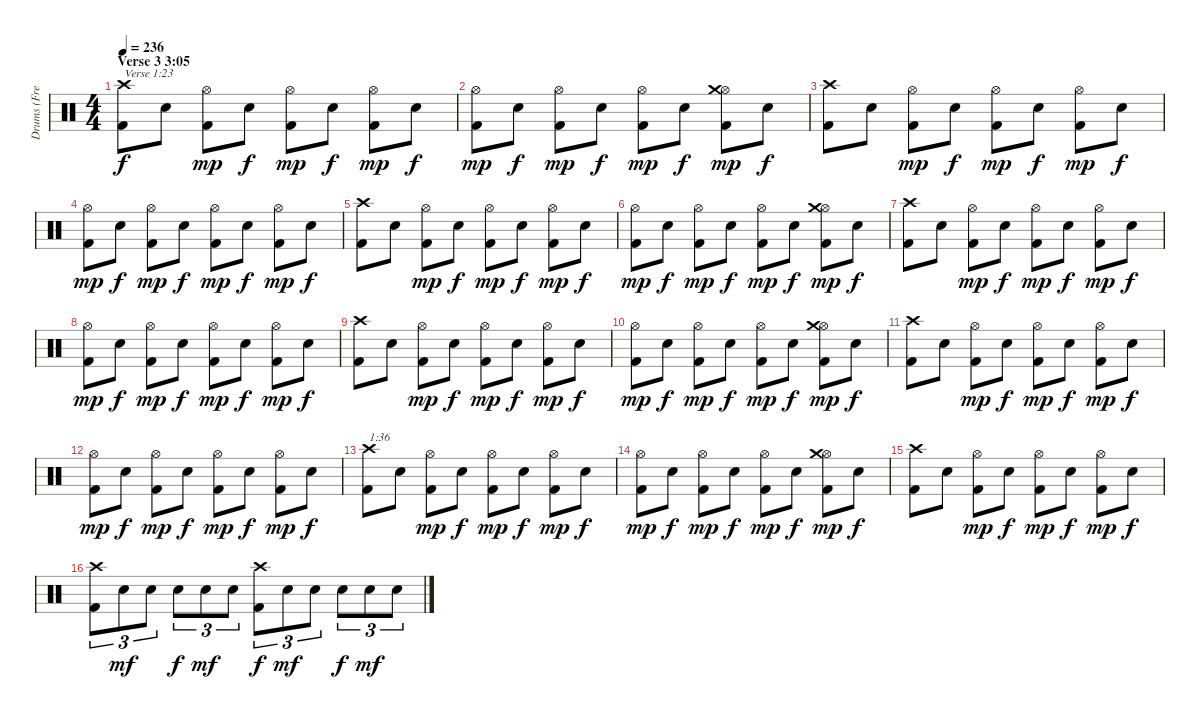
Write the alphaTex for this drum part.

\track ("Drums (Fred Estby)" "Drums (Fre") {instrument percussion}
\staff {score}
\articulation defaults
\ts (4 4)
\section ("" "Verse 3 3:05")
\tempo 236
\clef neutral
\ks c
("Kick (hit) 2" "Crash high (hit)").8{txt "Verse 1:23" dy f} "Electric Snare (hit)".8 ("Kick (hit) 2" "Hi-Hat (open)").8{dy mp} "Electric Snare (hit)".8{dy f} ("Kick (hit) 2" "Hi-Hat (open)").8{dy mp} "Electric Snare (hit)".8{dy f} ("Kick (hit) 2" "Hi-Hat (open)").8{dy mp} "Electric Snare (hit)".8{dy f} |
("Kick (hit) 2" "Hi-Hat (open)").8{dy mp} "Electric Snare (hit)".8{dy f} ("Kick (hit) 2" "Hi-Hat (open)").8{dy mp} "Electric Snare (hit)".8{dy f} ("Kick (hit) 2" "Hi-Hat (open)").8{dy mp} "Electric Snare (hit)".8{dy f} ("Kick (hit) 2" "Hi-Hat (open)" "Crash medium (hit)").8{dy mp} "Electric Snare (hit)".8{dy f} |
("Kick (hit) 2" "Crash high (hit)").8 "Electric Snare (hit)".8 ("Kick (hit) 2" "Hi-Hat (open)").8{dy mp} "Electric Snare (hit)".8{dy f} ("Kick (hit) 2" "Hi-Hat (open)").8{dy mp} "Electric Snare (hit)".8{dy f} ("Kick (hit) 2" "Hi-Hat (open)").8{dy mp} "Electric Snare (hit)".8{dy f} |
("Kick (hit) 2" "Hi-Hat (open)").8{dy mp} "Electric Snare (hit)".8{dy f} ("Kick (hit) 2" "Hi-Hat (open)").8{dy mp} "Electric Snare (hit)".8{dy f} ("Kick (hit) 2" "Hi-Hat (open)").8{dy mp} "Electric Snare (hit)".8{dy f} ("Kick (hit) 2" "Hi-Hat (open)").8{dy mp} "Electric Snare (hit)".8{dy f} |
("Kick (hit) 2" "Crash high (hit)").8 "Electric Snare (hit)".8 ("Kick (hit) 2" "Hi-Hat (open)").8{dy mp} "Electric Snare (hit)".8{dy f} ("Kick (hit) 2" "Hi-Hat (open)").8{dy mp} "Electric Snare (hit)".8{dy f} ("Kick (hit) 2" "Hi-Hat (open)").8{dy mp} "Electric Snare (hit)".8{dy f} |
("Kick (hit) 2" "Hi-Hat (open)").8{dy mp} "Electric Snare (hit)".8{dy f} ("Kick (hit) 2" "Hi-Hat (open)").8{dy mp} "Electric Snare (hit)".8{dy f} ("Kick (hit) 2" "Hi-Hat (open)").8{dy mp} "Electric Snare (hit)".8{dy f} ("Kick (hit) 2" "Hi-Hat (open)" "Crash medium (hit)").8{dy mp} "Electric Snare (hit)".8{dy f} |
("Kick (hit) 2" "Crash high (hit)").8 "Electric Snare (hit)".8 ("Kick (hit) 2" "Hi-Hat (open)").8{dy mp} "Electric Snare (hit)".8{dy f} ("Kick (hit) 2" "Hi-Hat (open)").8{dy mp} "Electric Snare (hit)".8{dy f} ("Kick (hit) 2" "Hi-Hat (open)").8{dy mp} "Electric Snare (hit)".8{dy f} |
("Kick (hit) 2" "Hi-Hat (open)").8{dy mp} "Electric Snare (hit)".8{dy f} ("Kick (hit) 2" "Hi-Hat (open)").8{dy mp} "Electric Snare (hit)".8{dy f} ("Kick (hit) 2" "Hi-Hat (open)").8{dy mp} "Electric Snare (hit)".8{dy f} ("Kick (hit) 2" "Hi-Hat (open)").8{dy mp} "Electric Snare (hit)".8{dy f} |
("Kick (hit) 2" "Crash high (hit)").8 "Electric Snare (hit)".8 ("Kick (hit) 2" "Hi-Hat (open)").8{dy mp} "Electric Snare (hit)".8{dy f} ("Kick (hit) 2" "Hi-Hat (open)").8{dy mp} "Electric Snare (hit)".8{dy f} ("Kick (hit) 2" "Hi-Hat (open)").8{dy mp} "Electric Snare (hit)".8{dy f} |
("Kick (hit) 2" "Hi-Hat (open)").8{dy mp} "Electric Snare (hit)".8{dy f} ("Kick (hit) 2" "Hi-Hat (open)").8{dy mp} "Electric Snare (hit)".8{dy f} ("Kick (hit) 2" "Hi-Hat (open)").8{dy mp} "Electric Snare (hit)".8{dy f} ("Kick (hit) 2" "Hi-Hat (open)" "Crash medium (hit)").8{dy mp} "Electric Snare (hit)".8{dy f} |
("Kick (hit) 2" "Crash high (hit)").8 "Electric Snare (hit)".8 ("Kick (hit) 2" "Hi-Hat (open)").8{dy mp} "Electric Snare (hit)".8{dy f} ("Kick (hit) 2" "Hi-Hat (open)").8{dy mp} "Electric Snare (hit)".8{dy f} ("Kick (hit) 2" "Hi-Hat (open)").8{dy mp} "Electric Snare (hit)".8{dy f} |
("Kick (hit) 2" "Hi-Hat (open)").8{dy mp} "Electric Snare (hit)".8{dy f} ("Kick (hit) 2" "Hi-Hat (open)").8{dy mp} "Electric Snare (hit)".8{dy f} ("Kick (hit) 2" "Hi-Hat (open)").8{dy mp} "Electric Snare (hit)".8{dy f} ("Kick (hit) 2" "Hi-Hat (open)").8{dy mp} "Electric Snare (hit)".8{dy f} |
("Kick (hit) 2" "Crash high (hit)").8{txt "1:36"} "Electric Snare (hit)".8 ("Kick (hit) 2" "Hi-Hat (open)").8{dy mp} "Electric Snare (hit)".8{dy f} ("Kick (hit) 2" "Hi-Hat (open)").8{dy mp} "Electric Snare (hit)".8{dy f} ("Kick (hit) 2" "Hi-Hat (open)").8{dy mp} "Electric Snare (hit)".8{dy f} |
("Kick (hit) 2" "Hi-Hat (open)").8{dy mp} "Electric Snare (hit)".8{dy f} ("Kick (hit) 2" "Hi-Hat (open)").8{dy mp} "Electric Snare (hit)".8{dy f} ("Kick (hit) 2" "Hi-Hat (open)").8{dy mp} "Electric Snare (hit)".8{dy f} ("Kick (hit) 2" "Hi-Hat (open)" "Crash medium (hit)").8{dy mp} "Electric Snare (hit)".8{dy f} |
("Kick (hit) 2" "Crash high (hit)").8 "Electric Snare (hit)".8 ("Kick (hit) 2" "Hi-Hat (open)").8{dy mp} "Electric Snare (hit)".8{dy f} ("Kick (hit) 2" "Hi-Hat (open)").8{dy mp} "Electric Snare (hit)".8{dy f} ("Kick (hit) 2" "Hi-Hat (open)").8{dy mp} "Electric Snare (hit)".8{dy f} |
("Kick (hit) 2" "Crash high (hit)").8{tu (3 2)} "Electric Snare (hit)".8{tu (3 2) dy mf} "Electric Snare (hit)".8{tu (3 2)} "Electric Snare (hit)".8{tu (3 2) dy f} "Electric Snare (hit)".8{tu (3 2) dy mf} "Electric Snare (hit)".8{tu (3 2)} ("Kick (hit) 2" "Crash high (hit)").8{tu (3 2) dy f} "Electric Snare (hit)".8{tu (3 2) dy mf} "Electric Snare (hit)".8{tu (3 2)} "Electric Snare (hit)".8{tu (3 2) dy f} "Electric Snare (hit)".8{tu (3 2) dy mf} "Electric Snare (hit)".8{tu (3 2)}
